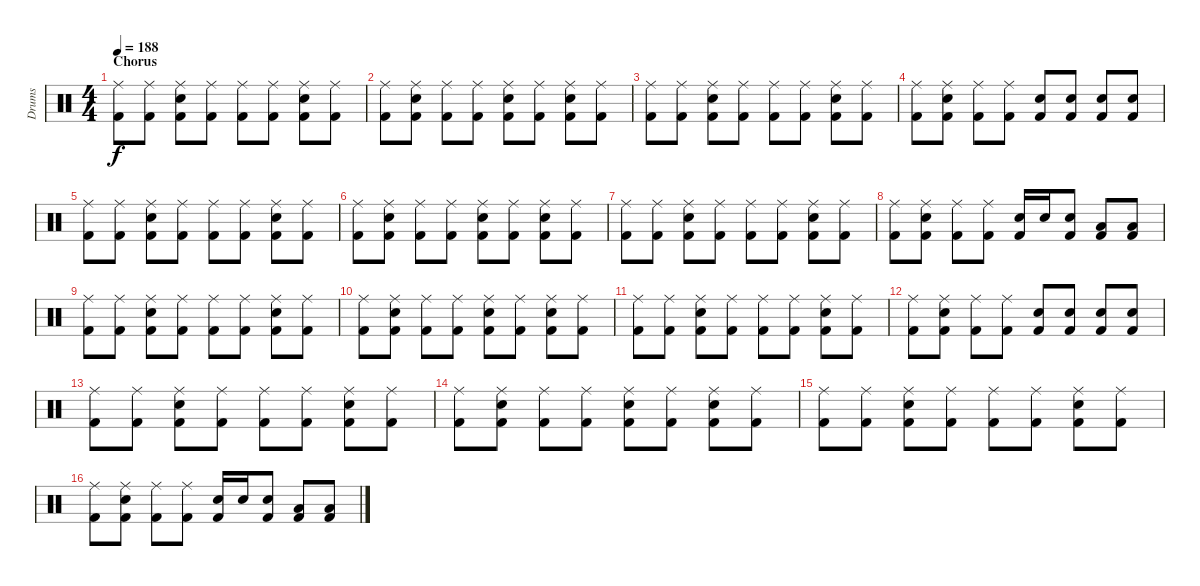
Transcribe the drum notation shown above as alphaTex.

\track ("Drums" "Drums") {instrument percussion}
\staff {score}
\articulation defaults
\ts (4 4)
\section ("" "Chorus")
\tempo 188
\clef neutral
\ks c
("Kick (hit) 2" "Ride (middle)").8{dy f} ("Kick (hit) 2" "Ride (middle)").8 ("Kick (hit) 2" "Snare (hit) 2" "Ride (middle)").8 ("Kick (hit) 2" "Ride (middle)").8 ("Kick (hit) 2" "Ride (middle)").8 ("Kick (hit) 2" "Ride (middle)").8 ("Kick (hit) 2" "Snare (hit) 2" "Ride (middle)").8 ("Kick (hit) 2" "Ride (middle)").8 |
("Kick (hit) 2" "Ride (middle)").8 ("Kick (hit) 2" "Snare (hit) 2" "Ride (middle)").8 ("Kick (hit) 2" "Ride (middle)").8 ("Kick (hit) 2" "Ride (middle)").8 ("Kick (hit) 2" "Snare (hit) 2" "Ride (middle)").8 ("Kick (hit) 2" "Ride (middle)").8 ("Kick (hit) 2" "Snare (hit) 2" "Ride (middle)").8 ("Kick (hit) 2" "Ride (middle)").8 |
("Kick (hit) 2" "Ride (middle)").8 ("Kick (hit) 2" "Ride (middle)").8 ("Kick (hit) 2" "Snare (hit) 2" "Ride (middle)").8 ("Kick (hit) 2" "Ride (middle)").8 ("Kick (hit) 2" "Ride (middle)").8 ("Kick (hit) 2" "Ride (middle)").8 ("Kick (hit) 2" "Snare (hit) 2" "Ride (middle)").8 ("Kick (hit) 2" "Ride (middle)").8 |
("Kick (hit) 2" "Ride (middle)").8 ("Kick (hit) 2" "Snare (hit) 2" "Ride (middle)").8 ("Kick (hit) 2" "Ride (middle)").8 ("Kick (hit) 2" "Ride (middle)").8 ("Kick (hit) 2" "Snare (hit) 2").8 ("Kick (hit) 2" "Snare (hit) 2").8 ("Kick (hit) 2" "Snare (hit) 2").8 ("Kick (hit) 2" "Snare (hit) 2").8 |
("Kick (hit) 2" "Ride (middle)").8 ("Kick (hit) 2" "Ride (middle)").8 ("Kick (hit) 2" "Snare (hit) 2" "Ride (middle)").8 ("Kick (hit) 2" "Ride (middle)").8 ("Kick (hit) 2" "Ride (middle)").8 ("Kick (hit) 2" "Ride (middle)").8 ("Kick (hit) 2" "Snare (hit) 2" "Ride (middle)").8 ("Kick (hit) 2" "Ride (middle)").8 |
("Kick (hit) 2" "Ride (middle)").8 ("Kick (hit) 2" "Snare (hit) 2" "Ride (middle)").8 ("Kick (hit) 2" "Ride (middle)").8 ("Kick (hit) 2" "Ride (middle)").8 ("Kick (hit) 2" "Snare (hit) 2" "Ride (middle)").8 ("Kick (hit) 2" "Ride (middle)").8 ("Kick (hit) 2" "Snare (hit) 2" "Ride (middle)").8 ("Kick (hit) 2" "Ride (middle)").8 |
("Kick (hit) 2" "Ride (middle)").8 ("Kick (hit) 2" "Ride (middle)").8 ("Kick (hit) 2" "Snare (hit) 2" "Ride (middle)").8 ("Kick (hit) 2" "Ride (middle)").8 ("Kick (hit) 2" "Ride (middle)").8 ("Kick (hit) 2" "Ride (middle)").8 ("Kick (hit) 2" "Snare (hit) 2" "Ride (middle)").8 ("Kick (hit) 2" "Ride (middle)").8 |
("Kick (hit) 2" "Ride (middle)").8 ("Kick (hit) 2" "Snare (hit) 2" "Ride (middle)").8 ("Kick (hit) 2" "Ride (middle)").8 ("Kick (hit) 2" "Ride (middle)").8 ("Kick (hit) 2" "Snare (hit) 2").16 "Snare (hit) 2".16 ("Kick (hit) 2" "Snare (hit) 2").8 ("Kick (hit) 2" "Low Tom (hit)").8 ("Kick (hit) 2" "Low Tom (hit)").8 |
("Kick (hit) 2" "Ride (middle)").8 ("Kick (hit) 2" "Ride (middle)").8 ("Kick (hit) 2" "Snare (hit) 2" "Ride (middle)").8 ("Kick (hit) 2" "Ride (middle)").8 ("Kick (hit) 2" "Ride (middle)").8 ("Kick (hit) 2" "Ride (middle)").8 ("Kick (hit) 2" "Snare (hit) 2" "Ride (middle)").8 ("Kick (hit) 2" "Ride (middle)").8 |
("Kick (hit) 2" "Ride (middle)").8 ("Kick (hit) 2" "Snare (hit) 2" "Ride (middle)").8 ("Kick (hit) 2" "Ride (middle)").8 ("Kick (hit) 2" "Ride (middle)").8 ("Kick (hit) 2" "Snare (hit) 2" "Ride (middle)").8 ("Kick (hit) 2" "Ride (middle)").8 ("Kick (hit) 2" "Snare (hit) 2" "Ride (middle)").8 ("Kick (hit) 2" "Ride (middle)").8 |
("Kick (hit) 2" "Ride (middle)").8 ("Kick (hit) 2" "Ride (middle)").8 ("Kick (hit) 2" "Snare (hit) 2" "Ride (middle)").8 ("Kick (hit) 2" "Ride (middle)").8 ("Kick (hit) 2" "Ride (middle)").8 ("Kick (hit) 2" "Ride (middle)").8 ("Kick (hit) 2" "Snare (hit) 2" "Ride (middle)").8 ("Kick (hit) 2" "Ride (middle)").8 |
("Kick (hit) 2" "Ride (middle)").8 ("Kick (hit) 2" "Snare (hit) 2" "Ride (middle)").8 ("Kick (hit) 2" "Ride (middle)").8 ("Kick (hit) 2" "Ride (middle)").8 ("Kick (hit) 2" "Snare (hit) 2").8 ("Kick (hit) 2" "Snare (hit) 2").8 ("Kick (hit) 2" "Snare (hit) 2").8 ("Kick (hit) 2" "Snare (hit) 2").8 |
("Kick (hit) 2" "Ride (middle)").8 ("Kick (hit) 2" "Ride (middle)").8 ("Kick (hit) 2" "Snare (hit) 2" "Ride (middle)").8 ("Kick (hit) 2" "Ride (middle)").8 ("Kick (hit) 2" "Ride (middle)").8 ("Kick (hit) 2" "Ride (middle)").8 ("Kick (hit) 2" "Snare (hit) 2" "Ride (middle)").8 ("Kick (hit) 2" "Ride (middle)").8 |
("Kick (hit) 2" "Ride (middle)").8 ("Kick (hit) 2" "Snare (hit) 2" "Ride (middle)").8 ("Kick (hit) 2" "Ride (middle)").8 ("Kick (hit) 2" "Ride (middle)").8 ("Kick (hit) 2" "Snare (hit) 2" "Ride (middle)").8 ("Kick (hit) 2" "Ride (middle)").8 ("Kick (hit) 2" "Snare (hit) 2" "Ride (middle)").8 ("Kick (hit) 2" "Ride (middle)").8 |
("Kick (hit) 2" "Ride (middle)").8 ("Kick (hit) 2" "Ride (middle)").8 ("Kick (hit) 2" "Snare (hit) 2" "Ride (middle)").8 ("Kick (hit) 2" "Ride (middle)").8 ("Kick (hit) 2" "Ride (middle)").8 ("Kick (hit) 2" "Ride (middle)").8 ("Kick (hit) 2" "Snare (hit) 2" "Ride (middle)").8 ("Kick (hit) 2" "Ride (middle)").8 |
("Kick (hit) 2" "Ride (middle)").8 ("Kick (hit) 2" "Snare (hit) 2" "Ride (middle)").8 ("Kick (hit) 2" "Ride (middle)").8 ("Kick (hit) 2" "Ride (middle)").8 ("Kick (hit) 2" "Snare (hit) 2").16 "Snare (hit) 2".16 ("Kick (hit) 2" "Snare (hit) 2").8 ("Kick (hit) 2" "Low Tom (hit)").8 ("Kick (hit) 2" "Low Tom (hit)").8
